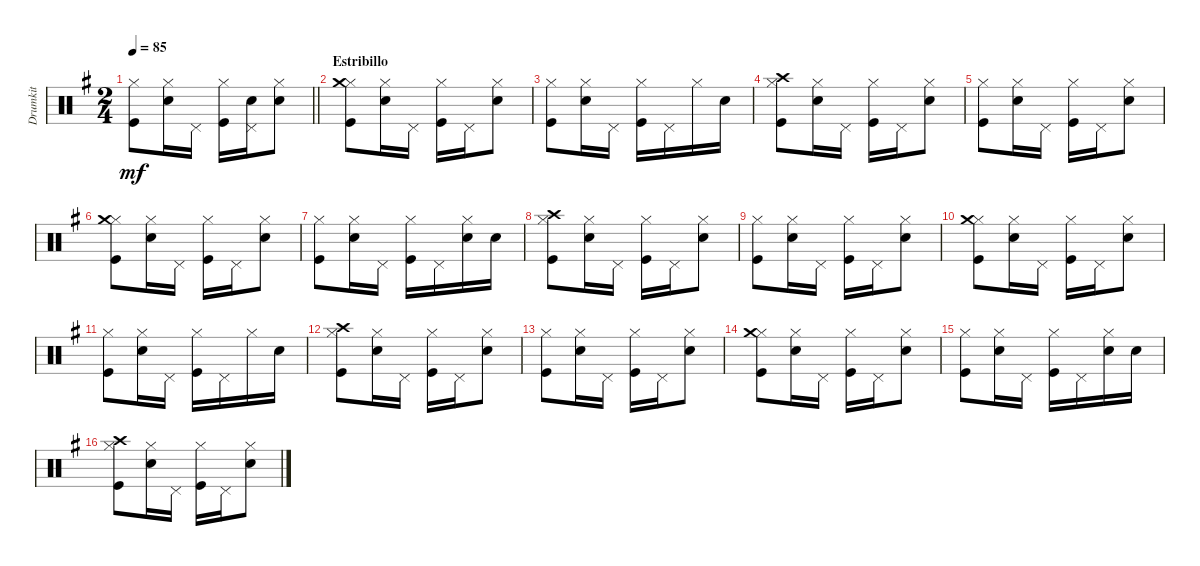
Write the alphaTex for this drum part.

\track ("Drumkit" "Drumkit") {instrument percussion}
\staff {score}
\articulation defaults
\ts (2 4)
\tempo 85
\clef neutral
\barLineRight lightlight
\ks g
("Kick (hit)" "Hi-Hat (closed)").8{dy mf} ("Snare (hit) 2" "Hi-Hat (closed)").16 "Pedal Hi-Hat (hit)".16 ("Kick (hit)" "Hi-Hat (closed)").16 ("Pedal Hi-Hat (hit)" "Snare (hit) 2").16 ("Snare (hit) 2" "Hi-Hat (closed)").8 |
\section ("" "Estribillo")
("Kick (hit)" "Hi-Hat (closed)" "Crash medium (hit)").8 ("Snare (hit) 2" "Hi-Hat (closed)").16 "Pedal Hi-Hat (hit)".16 ("Kick (hit)" "Hi-Hat (closed)").16 "Pedal Hi-Hat (hit)".16 ("Snare (hit) 2" "Hi-Hat (closed)").8 |
("Kick (hit)" "Hi-Hat (closed)").8 ("Snare (hit) 2" "Hi-Hat (closed)").16 "Pedal Hi-Hat (hit)".16 ("Kick (hit)" "Hi-Hat (closed)").16 "Pedal Hi-Hat (hit)".16 "Hi-Hat (closed)".16 "Snare (hit) 2".16 |
("Kick (hit)" "Hi-Hat (closed)" "Crash high (hit)").8 ("Snare (hit) 2" "Hi-Hat (closed)").16 "Pedal Hi-Hat (hit)".16 ("Kick (hit)" "Hi-Hat (closed)").16 "Pedal Hi-Hat (hit)".16 ("Snare (hit) 2" "Hi-Hat (closed)").8 |
("Kick (hit)" "Hi-Hat (closed)").8 ("Snare (hit) 2" "Hi-Hat (closed)").16 "Pedal Hi-Hat (hit)".16 ("Kick (hit)" "Hi-Hat (closed)").16 "Pedal Hi-Hat (hit)".16 ("Snare (hit) 2" "Hi-Hat (closed)").8 |
("Kick (hit)" "Hi-Hat (closed)" "Crash medium (hit)").8 ("Snare (hit) 2" "Hi-Hat (closed)").16 "Pedal Hi-Hat (hit)".16 ("Kick (hit)" "Hi-Hat (closed)").16 "Pedal Hi-Hat (hit)".16 ("Snare (hit) 2" "Hi-Hat (closed)").8 |
("Kick (hit)" "Hi-Hat (closed)").8 ("Snare (hit) 2" "Hi-Hat (closed)").16 "Pedal Hi-Hat (hit)".16 ("Kick (hit)" "Hi-Hat (closed)").16 "Pedal Hi-Hat (hit)".16 ("Snare (hit) 2" "Hi-Hat (closed)").16 "Snare (hit) 2".16 |
("Kick (hit)" "Hi-Hat (closed)" "Crash high (hit)").8 ("Snare (hit) 2" "Hi-Hat (closed)").16 "Pedal Hi-Hat (hit)".16 ("Kick (hit)" "Hi-Hat (closed)").16 "Pedal Hi-Hat (hit)".16 ("Snare (hit) 2" "Hi-Hat (closed)").8 |
("Kick (hit)" "Hi-Hat (closed)").8 ("Snare (hit) 2" "Hi-Hat (closed)").16 "Pedal Hi-Hat (hit)".16 ("Kick (hit)" "Hi-Hat (closed)").16 "Pedal Hi-Hat (hit)".16 ("Snare (hit) 2" "Hi-Hat (closed)").8 |
("Kick (hit)" "Hi-Hat (closed)" "Crash medium (hit)").8 ("Snare (hit) 2" "Hi-Hat (closed)").16 "Pedal Hi-Hat (hit)".16 ("Kick (hit)" "Hi-Hat (closed)").16 "Pedal Hi-Hat (hit)".16 ("Snare (hit) 2" "Hi-Hat (closed)").8 |
("Kick (hit)" "Hi-Hat (closed)").8 ("Snare (hit) 2" "Hi-Hat (closed)").16 "Pedal Hi-Hat (hit)".16 ("Kick (hit)" "Hi-Hat (closed)").16 "Pedal Hi-Hat (hit)".16 "Hi-Hat (closed)".16 "Snare (hit) 2".16 |
("Kick (hit)" "Hi-Hat (closed)" "Crash high (hit)").8 ("Snare (hit) 2" "Hi-Hat (closed)").16 "Pedal Hi-Hat (hit)".16 ("Kick (hit)" "Hi-Hat (closed)").16 "Pedal Hi-Hat (hit)".16 ("Snare (hit) 2" "Hi-Hat (closed)").8 |
("Kick (hit)" "Hi-Hat (closed)").8 ("Snare (hit) 2" "Hi-Hat (closed)").16 "Pedal Hi-Hat (hit)".16 ("Kick (hit)" "Hi-Hat (closed)").16 "Pedal Hi-Hat (hit)".16 ("Snare (hit) 2" "Hi-Hat (closed)").8 |
("Kick (hit)" "Hi-Hat (closed)" "Crash medium (hit)").8 ("Snare (hit) 2" "Hi-Hat (closed)").16 "Pedal Hi-Hat (hit)".16 ("Kick (hit)" "Hi-Hat (closed)").16 "Pedal Hi-Hat (hit)".16 ("Snare (hit) 2" "Hi-Hat (closed)").8 |
("Kick (hit)" "Hi-Hat (closed)").8 ("Snare (hit) 2" "Hi-Hat (closed)").16 "Pedal Hi-Hat (hit)".16 ("Kick (hit)" "Hi-Hat (closed)").16 "Pedal Hi-Hat (hit)".16 ("Snare (hit) 2" "Hi-Hat (closed)").16 "Snare (hit) 2".16 |
("Kick (hit)" "Hi-Hat (closed)" "Crash high (hit)").8 ("Snare (hit) 2" "Hi-Hat (closed)").16 "Pedal Hi-Hat (hit)".16 ("Kick (hit)" "Hi-Hat (closed)").16 "Pedal Hi-Hat (hit)".16 ("Snare (hit) 2" "Hi-Hat (closed)").8
